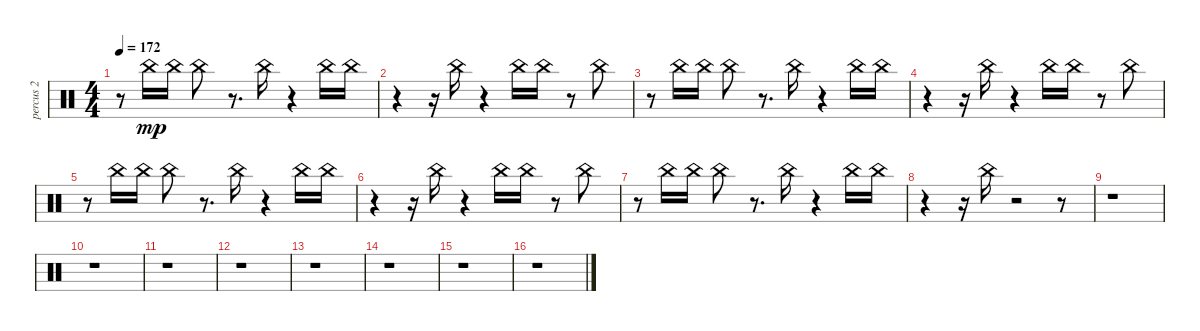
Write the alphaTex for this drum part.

\track ("percus 2" "percus 2") {instrument percussion}
\staff {score}
\articulation defaults
\ts (4 4)
\tempo 172
\clef neutral
\ks c
r.8{dy mp} "China (hit)".16 "China (hit)".16 "China (hit)".8 r.8{d} "China (hit)".16 r.4 "China (hit)".16 "China (hit)".16 |
r.4 r.16 "China (hit)".16 r.4 "China (hit)".16 "China (hit)".16 r.8 "China (hit)".8 |
r.8 "China (hit)".16 "China (hit)".16 "China (hit)".8 r.8{d} "China (hit)".16 r.4 "China (hit)".16 "China (hit)".16 |
r.4 r.16 "China (hit)".16 r.4 "China (hit)".16 "China (hit)".16 r.8 "China (hit)".8 |
r.8 "China (hit)".16 "China (hit)".16 "China (hit)".8 r.8{d} "China (hit)".16 r.4 "China (hit)".16 "China (hit)".16 |
r.4 r.16 "China (hit)".16 r.4 "China (hit)".16 "China (hit)".16 r.8 "China (hit)".8 |
r.8 "China (hit)".16 "China (hit)".16 "China (hit)".8 r.8{d} "China (hit)".16 r.4 "China (hit)".16 "China (hit)".16 |
r.4 r.16 "China (hit)".16 r.2 r.8 |
r.1 |
r.1 |
r.1 |
r.1 |
r.1 |
r.1 |
r.1 |
r.1
